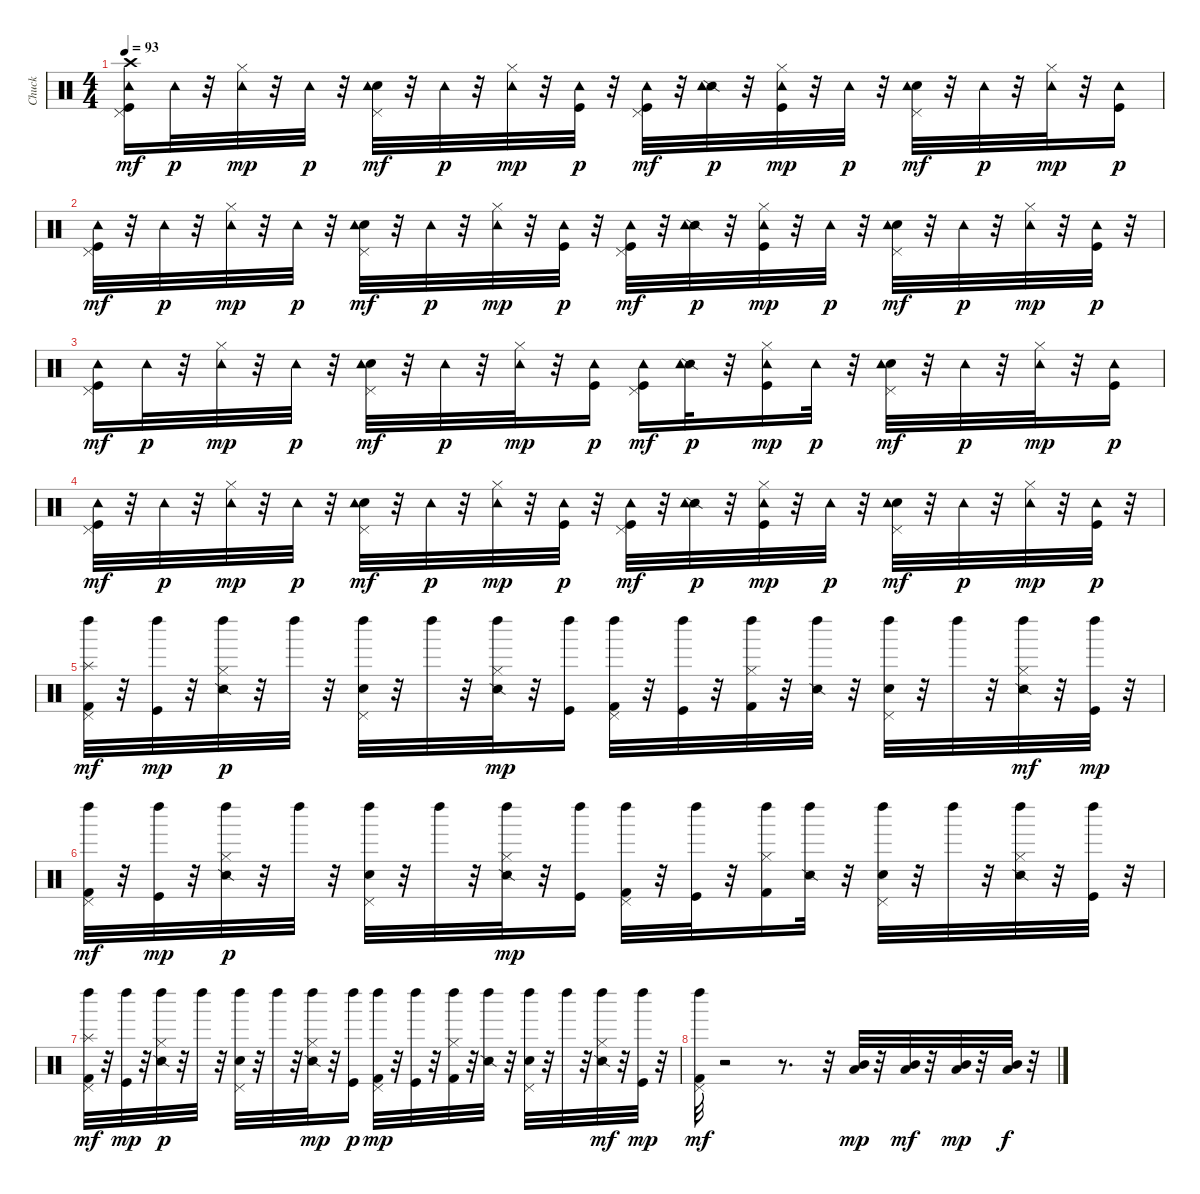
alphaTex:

\track ("Chuck" "Chuck") {instrument percussion}
\staff {score}
\articulation defaults
\ts (4 4)
\tempo 93
\clef neutral
\ks c
("Kick (hit)" "Pedal Hi-Hat (hit)" "Crash high (hit)" "Tambourine (hit)").16{dy mf} "Tambourine (hit)".32{dy p} r.32 ("Hi-Hat (closed)" "Tambourine (hit)").32{dy mp} r.32 "Tambourine (hit)".32{dy p} r.32 ("Electric Snare (hit)" "Pedal Hi-Hat (hit)" "Tambourine (hit)").32{dy mf} r.32 "Tambourine (hit)".32{dy p} r.32 ("Hi-Hat (closed)" "Tambourine (hit)").32{dy mp} r.32 ("Kick (hit)" "Tambourine (hit)").32{dy p} r.32 ("Kick (hit)" "Pedal Hi-Hat (hit)" "Tambourine (hit)").32{dy mf} r.32 ("Snare (side stick) 2" "Tambourine (hit)").32{dy p} r.32 ("Kick (hit)" "Hi-Hat (closed)" "Tambourine (hit)").32{dy mp} r.32 "Tambourine (hit)".32{dy p} r.32 ("Electric Snare (hit)" "Pedal Hi-Hat (hit)" "Tambourine (hit)").32{dy mf} r.32 "Tambourine (hit)".32{dy p} r.32 ("Hi-Hat (closed)" "Tambourine (hit)").32{dy mp} r.32 ("Kick (hit)" "Tambourine (hit)").16{dy p} |
("Kick (hit)" "Pedal Hi-Hat (hit)" "Tambourine (hit)").32{dy mf} r.32 "Tambourine (hit)".32{dy p} r.32 ("Hi-Hat (closed)" "Tambourine (hit)").32{dy mp} r.32 "Tambourine (hit)".32{dy p} r.32 ("Electric Snare (hit)" "Pedal Hi-Hat (hit)" "Tambourine (hit)").32{dy mf} r.32 "Tambourine (hit)".32{dy p} r.32 ("Hi-Hat (closed)" "Tambourine (hit)").32{dy mp} r.32 ("Kick (hit)" "Tambourine (hit)").32{dy p} r.32 ("Kick (hit)" "Pedal Hi-Hat (hit)" "Tambourine (hit)").32{dy mf} r.32 ("Snare (side stick) 2" "Tambourine (hit)").32{dy p} r.32 ("Kick (hit)" "Hi-Hat (closed)" "Tambourine (hit)").32{dy mp} r.32 "Tambourine (hit)".32{dy p} r.32 ("Electric Snare (hit)" "Pedal Hi-Hat (hit)" "Tambourine (hit)").32{dy mf} r.32 "Tambourine (hit)".32{dy p} r.32 ("Hi-Hat (closed)" "Tambourine (hit)").32{dy mp} r.32 ("Kick (hit)" "Tambourine (hit)").32{dy p} r.32 |
("Kick (hit)" "Pedal Hi-Hat (hit)" "Tambourine (hit)").16{dy mf} "Tambourine (hit)".32{dy p} r.32 ("Hi-Hat (closed)" "Tambourine (hit)").32{dy mp} r.32 "Tambourine (hit)".32{dy p} r.32 ("Electric Snare (hit)" "Pedal Hi-Hat (hit)" "Tambourine (hit)").32{dy mf} r.32 "Tambourine (hit)".32{dy p} r.32 ("Hi-Hat (closed)" "Tambourine (hit)").32{dy mp} r.32 ("Kick (hit)" "Tambourine (hit)").16{dy p} ("Kick (hit)" "Pedal Hi-Hat (hit)" "Tambourine (hit)").16{dy mf} ("Snare (side stick) 2" "Tambourine (hit)").32{dy p} r.32 ("Kick (hit)" "Hi-Hat (closed)" "Tambourine (hit)").16{dy mp} "Tambourine (hit)".32{dy p} r.32 ("Electric Snare (hit)" "Pedal Hi-Hat (hit)" "Tambourine (hit)").32{dy mf} r.32 "Tambourine (hit)".32{dy p} r.32 ("Hi-Hat (closed)" "Tambourine (hit)").32{dy mp} r.32 ("Kick (hit)" "Tambourine (hit)").16{dy p} |
("Kick (hit)" "Pedal Hi-Hat (hit)" "Tambourine (hit)").32{dy mf} r.32 "Tambourine (hit)".32{dy p} r.32 ("Hi-Hat (closed)" "Tambourine (hit)").32{dy mp} r.32 "Tambourine (hit)".32{dy p} r.32 ("Electric Snare (hit)" "Pedal Hi-Hat (hit)" "Tambourine (hit)").32{dy mf} r.32 "Tambourine (hit)".32{dy p} r.32 ("Hi-Hat (closed)" "Tambourine (hit)").32{dy mp} r.32 ("Kick (hit)" "Tambourine (hit)").32{dy p} r.32 ("Kick (hit)" "Pedal Hi-Hat (hit)" "Tambourine (hit)").32{dy mf} r.32 ("Snare (side stick) 2" "Tambourine (hit)").32{dy p} r.32 ("Kick (hit)" "Hi-Hat (closed)" "Tambourine (hit)").32{dy mp} r.32 "Tambourine (hit)".32{dy p} r.32 ("Electric Snare (hit)" "Pedal Hi-Hat (hit)" "Tambourine (hit)").32{dy mf} r.32 "Tambourine (hit)".32{dy p} r.32 ("Hi-Hat (closed)" "Tambourine (hit)").32{dy mp} r.32 ("Kick (hit)" "Tambourine (hit)").32{dy p} r.32 |
("Kick (hit) 2" "Pedal Hi-Hat (hit)" "Splash (hit)" "Left Maraca (hit)").32{dy mf} r.32 ("Kick (hit)" "Left Maraca (hit)").32{dy mp} r.32 ("Snare (side stick) 2" "Hi-Hat (closed)" "Left Maraca (hit)").32{dy p} r.32 "Left Maraca (hit)".32 r.32 ("Snare (hit) 2" "Pedal Hi-Hat (hit)" "Left Maraca (hit)").32 r.32 "Left Maraca (hit)".32 r.32 ("Snare (side stick) 2" "Hi-Hat (closed)" "Left Maraca (hit)").32{dy mp} r.32 ("Kick (hit)" "Left Maraca (hit)").16 ("Kick (hit) 2" "Pedal Hi-Hat (hit)" "Left Maraca (hit)").32 r.32 ("Kick (hit)" "Left Maraca (hit)").32 r.32 ("Kick (hit) 2" "Hi-Hat (closed)" "Left Maraca (hit)").32 r.32 ("Snare (side stick) 2" "Left Maraca (hit)").32 r.32 ("Snare (hit) 2" "Pedal Hi-Hat (hit)" "Left Maraca (hit)").32 r.32 "Left Maraca (hit)".32 r.32 ("Snare (side stick) 2" "Hi-Hat (closed)" "Left Maraca (hit)").32{dy mf} r.32 ("Kick (hit)" "Left Maraca (hit)").32{dy mp} r.32 |
("Kick (hit) 2" "Pedal Hi-Hat (hit)" "Left Maraca (hit)").32{dy mf} r.32 ("Kick (hit)" "Left Maraca (hit)").32{dy mp} r.32 ("Snare (side stick) 2" "Hi-Hat (closed)" "Left Maraca (hit)").32{dy p} r.32 "Left Maraca (hit)".32 r.32 ("Snare (hit) 2" "Pedal Hi-Hat (hit)" "Left Maraca (hit)").32 r.32 "Left Maraca (hit)".32 r.32 ("Snare (side stick) 2" "Hi-Hat (closed)" "Left Maraca (hit)").32{dy mp} r.32 ("Kick (hit)" "Left Maraca (hit)").16 ("Kick (hit) 2" "Pedal Hi-Hat (hit)" "Left Maraca (hit)").32 r.32 ("Kick (hit)" "Left Maraca (hit)").32 r.32 ("Kick (hit) 2" "Hi-Hat (closed)" "Left Maraca (hit)").16 ("Snare (side stick) 2" "Left Maraca (hit)").32 r.32 ("Snare (hit) 2" "Pedal Hi-Hat (hit)" "Left Maraca (hit)").32 r.32 "Left Maraca (hit)".32 r.32 ("Snare (side stick) 2" "Hi-Hat (closed)" "Left Maraca (hit)").32 r.32 ("Kick (hit)" "Left Maraca (hit)").32 r.32 |
("Kick (hit) 2" "Pedal Hi-Hat (hit)" "Splash (hit)" "Left Maraca (hit)").32{dy mf} r.32 ("Kick (hit)" "Left Maraca (hit)").32{dy mp} r.32 ("Snare (side stick) 2" "Hi-Hat (closed)" "Left Maraca (hit)").32{dy p} r.32 "Left Maraca (hit)".32 r.32 ("Snare (hit) 2" "Pedal Hi-Hat (hit)" "Left Maraca (hit)").32 r.32 "Left Maraca (hit)".32 r.32 ("Snare (side stick) 2" "Hi-Hat (closed)" "Left Maraca (hit)").32{dy mp} r.32 ("Kick (hit)" "Left Maraca (hit)").16{dy p} ("Kick (hit) 2" "Pedal Hi-Hat (hit)" "Left Maraca (hit)").32{dy mp} r.32 ("Kick (hit)" "Left Maraca (hit)").32 r.32 ("Kick (hit) 2" "Hi-Hat (closed)" "Left Maraca (hit)").32 r.32 ("Snare (side stick) 2" "Left Maraca (hit)").32 r.32 ("Snare (hit) 2" "Pedal Hi-Hat (hit)" "Left Maraca (hit)").32 r.32 "Left Maraca (hit)".32 r.32 ("Snare (side stick) 2" "Hi-Hat (closed)" "Left Maraca (hit)").32{dy mf} r.32 ("Kick (hit)" "Left Maraca (hit)").32{dy mp} r.32 |
("Kick (hit) 2" "Pedal Hi-Hat (hit)" "Left Maraca (hit)").32{dy mf} r.2 r.8{d} r.32 ("Low Tom (hit)" "Mid Tom (hit)").32{dy mp} r.32 ("Low Tom (hit)" "Mid Tom (hit)").32{dy mf} r.32 ("Low Tom (hit)" "Mid Tom (hit)").32{dy mp} r.32 ("Low Tom (hit)" "Mid Tom (hit)").32{dy f} r.32
